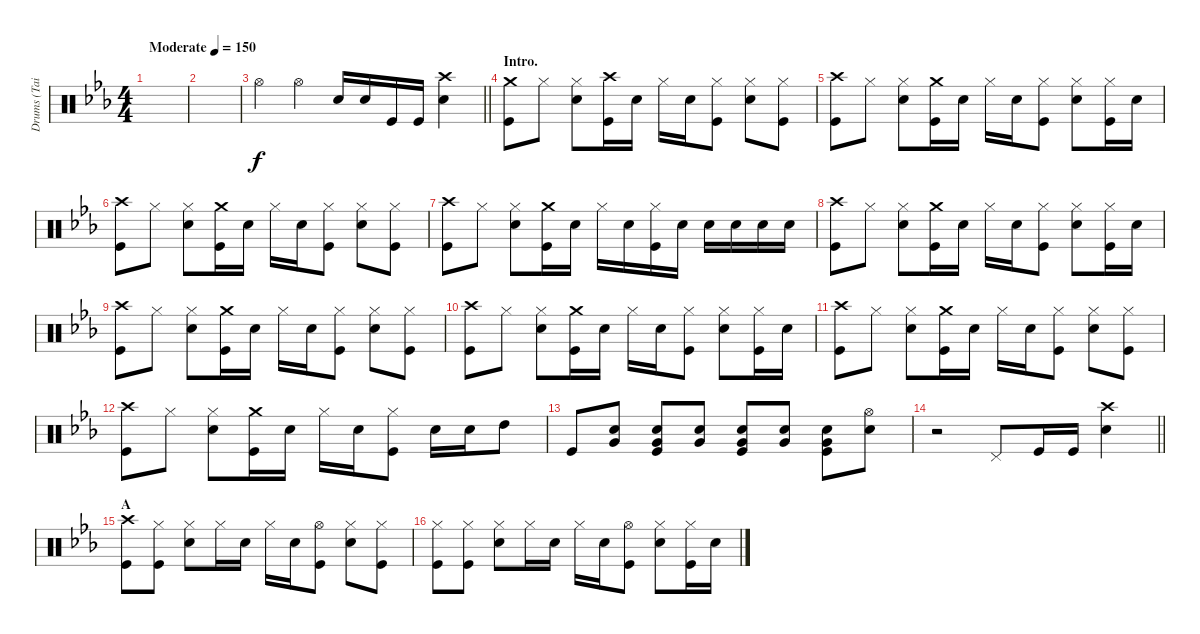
\track ("Drums (Tainaka Ritsu)" "Drums (Tai") {instrument percussion}
\staff {score}
\articulation defaults
\ts (4 4)
\tempo (150 "Moderate")
\clef neutral
\ks eb
|
|
\barLineRight lightlight "Hi-Hat (open)".4 "Hi-Hat (open)".4 "Snare (hit) 2".16 "Snare (hit) 2".16 "Kick (hit)".16 "Kick (hit)".16
("Crash high (hit)" "Snare (hit) 2").4 |
\section ("" "Intro.")
("Crash medium (hit)" "Kick (hit)").8 "Hi-Hat (closed)".8 ("Hi-Hat (closed)" "Snare (hit) 2").8 ("Crash high (hit)" "Kick (hit)").16 "Snare (hit) 2".16 "Hi-Hat (closed)".16 "Snare (hit) 2".16 ("Hi-Hat (closed)" "Kick (hit)").8 ("Hi-Hat (closed)" "Snare (hit) 2").8 ("Hi-Hat (closed)" "Kick (hit)").8 |
("Crash high (hit)" "Kick (hit)").8 "Hi-Hat (closed)".8 ("Hi-Hat (closed)" "Snare (hit) 2").8 ("Crash medium (hit)" "Kick (hit)").16 "Snare (hit) 2".16 "Hi-Hat (closed)".16 "Snare (hit) 2".16 ("Hi-Hat (closed)" "Kick (hit)").8 ("Hi-Hat (closed)" "Snare (hit) 2").8 ("Hi-Hat (closed)" "Kick (hit)").16 "Snare (hit) 2".16 |
("Crash high (hit)" "Kick (hit)").8 "Hi-Hat (closed)".8 ("Hi-Hat (closed)" "Snare (hit) 2").8 ("Crash medium (hit)" "Kick (hit)").16 "Snare (hit) 2".16 "Hi-Hat (closed)".16 "Snare (hit) 2".16 ("Hi-Hat (closed)" "Kick (hit)").8 ("Hi-Hat (closed)" "Snare (hit) 2").8 ("Hi-Hat (closed)" "Kick (hit)").8 |
("Crash high (hit)" "Kick (hit)").8 "Hi-Hat (closed)".8 ("Hi-Hat (closed)" "Snare (hit) 2").8 ("Crash medium (hit)" "Kick (hit)").16 "Snare (hit) 2".16 "Hi-Hat (closed)".16 "Snare (hit) 2".16 ("Hi-Hat (closed)" "Kick (hit)").16 "Snare (hit) 2".16 "Snare (hit) 2".16 "Snare (hit) 2".16 "Snare (hit) 2".16 "Snare (hit) 2".16 |
("Crash high (hit)" "Kick (hit)").8 "Hi-Hat (closed)".8 ("Hi-Hat (closed)" "Snare (hit) 2").8 ("Crash medium (hit)" "Kick (hit)").16 "Snare (hit) 2".16 "Hi-Hat (closed)".16 "Snare (hit) 2".16 ("Hi-Hat (closed)" "Kick (hit)").8 ("Hi-Hat (closed)" "Snare (hit) 2").8 ("Hi-Hat (closed)" "Kick (hit)").16 "Snare (hit) 2".16 |
("Crash high (hit)" "Kick (hit)").8 "Hi-Hat (closed)".8 ("Hi-Hat (closed)" "Snare (hit) 2").8 ("Crash medium (hit)" "Kick (hit)").16 "Snare (hit) 2".16 "Hi-Hat (closed)".16 "Snare (hit) 2".16 ("Hi-Hat (closed)" "Kick (hit)").8 ("Hi-Hat (closed)" "Snare (hit) 2").8 ("Hi-Hat (closed)" "Kick (hit)").8 |
("Crash high (hit)" "Kick (hit)").8 "Hi-Hat (closed)".8 ("Hi-Hat (closed)" "Snare (hit) 2").8 ("Crash medium (hit)" "Kick (hit)").16 "Snare (hit) 2".16 "Hi-Hat (closed)".16 "Snare (hit) 2".16 ("Hi-Hat (closed)" "Kick (hit)").8 ("Hi-Hat (closed)" "Snare (hit) 2").8 ("Hi-Hat (closed)" "Kick (hit)").16 "Snare (hit) 2".16 |
("Crash high (hit)" "Kick (hit)").8 "Hi-Hat (closed)".8 ("Hi-Hat (closed)" "Snare (hit) 2").8 ("Crash medium (hit)" "Kick (hit)").16 "Snare (hit) 2".16 "Hi-Hat (closed)".16 "Snare (hit) 2".16 ("Hi-Hat (closed)" "Kick (hit)").8 ("Hi-Hat (closed)" "Snare (hit) 2").8 ("Hi-Hat (closed)" "Kick (hit)").8 |
("Crash high (hit)" "Kick (hit)").8 "Hi-Hat (closed)".8 ("Hi-Hat (closed)" "Snare (hit) 2").8 ("Crash medium (hit)" "Kick (hit)").16 "Snare (hit) 2".16 "Hi-Hat (closed)".16 "Snare (hit) 2".16 ("Hi-Hat (closed)" "Kick (hit)").8 "Snare (hit) 2".16 "Snare (hit) 2".16 "High Tom (hit)".8 |
"Kick (hit)".8 ("Snare (hit) 2" "Very Low Tom (hit)").8 ("Snare (hit) 2" "Very Low Tom (hit)" "Kick (hit)").8 ("Snare (hit) 2" "Very Low Tom (hit)").8 ("Snare (hit) 2" "Very Low Tom (hit)" "Kick (hit)").8 ("Snare (hit) 2" "Very Low Tom (hit)").8 ("Snare (hit) 2" "Very Low Tom (hit)" "Kick (hit)").8 ("Hi-Hat (open)" "Snare (hit) 2").8 |
\barLineRight lightlight
r.2 "Pedal Hi-Hat (hit)".8 "Kick (hit)".16 "Kick (hit)".16 ("Crash high (hit)" "Snare (hit) 2").4 |
\section ("" "A")
("Crash high (hit)" "Kick (hit)").8 ("Hi-Hat (closed)" "Kick (hit)").8 ("Hi-Hat (closed)" "Snare (hit) 2").8 "Hi-Hat (closed)".16 "Snare (hit) 2".16 "Hi-Hat (closed)".16 "Snare (hit) 2".16 ("Hi-Hat (open)" "Kick (hit)").8 ("Hi-Hat (closed)" "Snare (hit) 2").8 ("Hi-Hat (closed)" "Kick (hit)").8 |
("Hi-Hat (closed)" "Kick (hit)").8 ("Hi-Hat (closed)" "Kick (hit)").8 ("Hi-Hat (closed)" "Snare (hit) 2").8 "Hi-Hat (closed)".16 "Snare (hit) 2".16 "Hi-Hat (closed)".16 "Snare (hit) 2".16 ("Hi-Hat (open)" "Kick (hit)").8 ("Hi-Hat (closed)" "Snare (hit) 2").8 ("Hi-Hat (closed)" "Kick (hit)").16 "Snare (hit) 2".16
